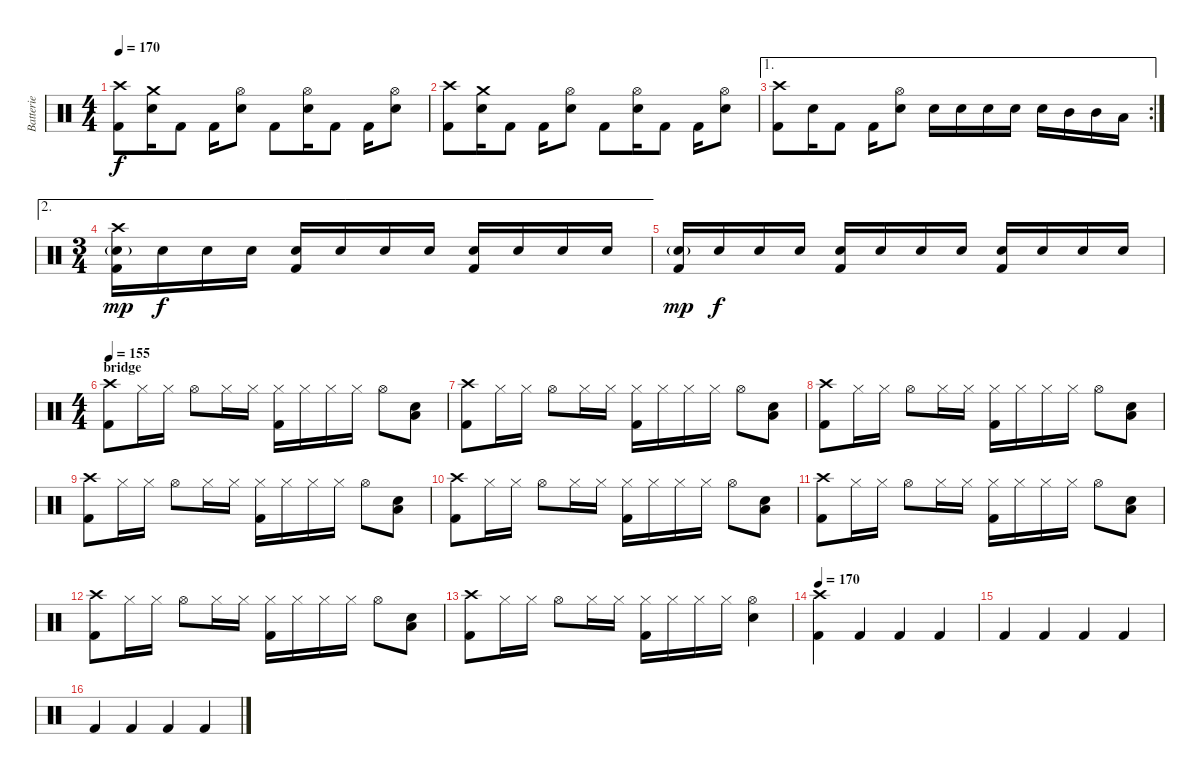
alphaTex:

\track ("Batterie" "Batterie") {instrument percussion}
\staff {score}
\articulation defaults
\ts (4 4)
\tempo 170
\clef neutral
\ks c
("Crash high (hit)" "Kick (hit) 2").8{dy f} ("Crash medium (hit)" "Electric Snare (hit)").16 "Kick (hit) 2".8 "Kick (hit) 2".16 ("Hi-Hat (open)" "Electric Snare (hit)").8 "Kick (hit) 2".8 ("Hi-Hat (open)" "Electric Snare (hit)").16 "Kick (hit) 2".8 "Kick (hit) 2".16 ("Hi-Hat (open)" "Electric Snare (hit)").8 |
("Crash high (hit)" "Kick (hit) 2").8 ("Crash medium (hit)" "Electric Snare (hit)").16 "Kick (hit) 2".8 "Kick (hit) 2".16 ("Hi-Hat (open)" "Electric Snare (hit)").8 "Kick (hit) 2".8 ("Hi-Hat (open)" "Electric Snare (hit)").16 "Kick (hit) 2".8 "Kick (hit) 2".16 ("Hi-Hat (open)" "Electric Snare (hit)").8 |
\ae 1
\rc 2
("Crash high (hit)" "Kick (hit) 2").8 "Electric Snare (hit)".16 "Kick (hit) 2".8 "Kick (hit) 2".16 ("Hi-Hat (open)" "Electric Snare (hit)").8 "Electric Snare (hit)".16 "Electric Snare (hit)".16 "Electric Snare (hit)".16 "Electric Snare (hit)".16 "Electric Snare (hit)".16 "Mid Tom (hit)".16 "Mid Tom (hit)".16 "Low Tom (hit)".16 |
\ae 2
\ts (3 4)
("Crash high (hit)" "Electric Snare (hit)"{g} "Kick (hit) 2").16{dy mp} "Electric Snare (hit)".16{dy f} "Electric Snare (hit)".16 "Electric Snare (hit)".16 ("Electric Snare (hit)" "Kick (hit) 2").16 "Electric Snare (hit)".16 "Electric Snare (hit)".16 "Electric Snare (hit)".16 ("Electric Snare (hit)" "Kick (hit) 2").16 "Electric Snare (hit)".16 "Electric Snare (hit)".16 "Electric Snare (hit)".16 |
("Electric Snare (hit)"{g} "Kick (hit) 2").16{dy mp} "Electric Snare (hit)".16{dy f} "Electric Snare (hit)".16 "Electric Snare (hit)".16 ("Electric Snare (hit)" "Kick (hit) 2").16 "Electric Snare (hit)".16 "Electric Snare (hit)".16 "Electric Snare (hit)".16 ("Electric Snare (hit)" "Kick (hit) 2").16 "Electric Snare (hit)".16 "Electric Snare (hit)".16 "Electric Snare (hit)".16 |
\ts (4 4)
\section ("" "bridge")
\tempo 155
("Crash high (hit)" "Kick (hit) 2").8 "Hi-Hat (closed)".16 "Hi-Hat (closed)".16 "Hi-Hat (open)".8 "Hi-Hat (closed)".16 "Hi-Hat (closed)".16 ("Hi-Hat (closed)" "Kick (hit) 2").16 "Hi-Hat (closed)".16 "Hi-Hat (closed)".16 "Hi-Hat (closed)".16 "Hi-Hat (open)".8 ("Low Floor Tom (hit)" "Electric Snare (hit)").8 |
("Crash high (hit)" "Kick (hit) 2").8 "Hi-Hat (closed)".16 "Hi-Hat (closed)".16 "Hi-Hat (open)".8 "Hi-Hat (closed)".16 "Hi-Hat (closed)".16 ("Hi-Hat (closed)" "Kick (hit) 2").16 "Hi-Hat (closed)".16 "Hi-Hat (closed)".16 "Hi-Hat (closed)".16 "Hi-Hat (open)".8 ("Low Floor Tom (hit)" "Electric Snare (hit)").8 |
("Crash high (hit)" "Kick (hit) 2").8 "Hi-Hat (closed)".16 "Hi-Hat (closed)".16 "Hi-Hat (open)".8 "Hi-Hat (closed)".16 "Hi-Hat (closed)".16 ("Hi-Hat (closed)" "Kick (hit) 2").16 "Hi-Hat (closed)".16 "Hi-Hat (closed)".16 "Hi-Hat (closed)".16 "Hi-Hat (open)".8 ("Low Floor Tom (hit)" "Electric Snare (hit)").8 |
("Crash high (hit)" "Kick (hit) 2").8 "Hi-Hat (closed)".16 "Hi-Hat (closed)".16 "Hi-Hat (open)".8 "Hi-Hat (closed)".16 "Hi-Hat (closed)".16 ("Hi-Hat (closed)" "Kick (hit) 2").16 "Hi-Hat (closed)".16 "Hi-Hat (closed)".16 "Hi-Hat (closed)".16 "Hi-Hat (open)".8 ("Low Floor Tom (hit)" "Electric Snare (hit)").8 |
("Crash high (hit)" "Kick (hit) 2").8 "Hi-Hat (closed)".16 "Hi-Hat (closed)".16 "Hi-Hat (open)".8 "Hi-Hat (closed)".16 "Hi-Hat (closed)".16 ("Hi-Hat (closed)" "Kick (hit) 2").16 "Hi-Hat (closed)".16 "Hi-Hat (closed)".16 "Hi-Hat (closed)".16 "Hi-Hat (open)".8 ("Low Floor Tom (hit)" "Electric Snare (hit)").8 |
("Crash high (hit)" "Kick (hit) 2").8 "Hi-Hat (closed)".16 "Hi-Hat (closed)".16 "Hi-Hat (open)".8 "Hi-Hat (closed)".16 "Hi-Hat (closed)".16 ("Hi-Hat (closed)" "Kick (hit) 2").16 "Hi-Hat (closed)".16 "Hi-Hat (closed)".16 "Hi-Hat (closed)".16 "Hi-Hat (open)".8 ("Low Floor Tom (hit)" "Electric Snare (hit)").8 |
("Crash high (hit)" "Kick (hit) 2").8 "Hi-Hat (closed)".16 "Hi-Hat (closed)".16 "Hi-Hat (open)".8 "Hi-Hat (closed)".16 "Hi-Hat (closed)".16 ("Hi-Hat (closed)" "Kick (hit) 2").16 "Hi-Hat (closed)".16 "Hi-Hat (closed)".16 "Hi-Hat (closed)".16 "Hi-Hat (open)".8 ("Low Floor Tom (hit)" "Electric Snare (hit)").8 |
("Crash high (hit)" "Kick (hit) 2").8 "Hi-Hat (closed)".16 "Hi-Hat (closed)".16 "Hi-Hat (open)".8 "Hi-Hat (closed)".16 "Hi-Hat (closed)".16 ("Hi-Hat (closed)" "Kick (hit) 2").16 "Hi-Hat (closed)".16 "Hi-Hat (closed)".16 "Hi-Hat (closed)".16 ("Hi-Hat (open)" "Electric Snare (hit)").4 |
\tempo 170
("Crash high (hit)" "Kick (hit) 2").4 "Kick (hit) 2".4 "Kick (hit) 2".4 "Kick (hit) 2".4 |
"Kick (hit) 2".4 "Kick (hit) 2".4 "Kick (hit) 2".4 "Kick (hit) 2".4 |
"Kick (hit) 2".4 "Kick (hit) 2".4 "Kick (hit) 2".4 "Kick (hit) 2".4
